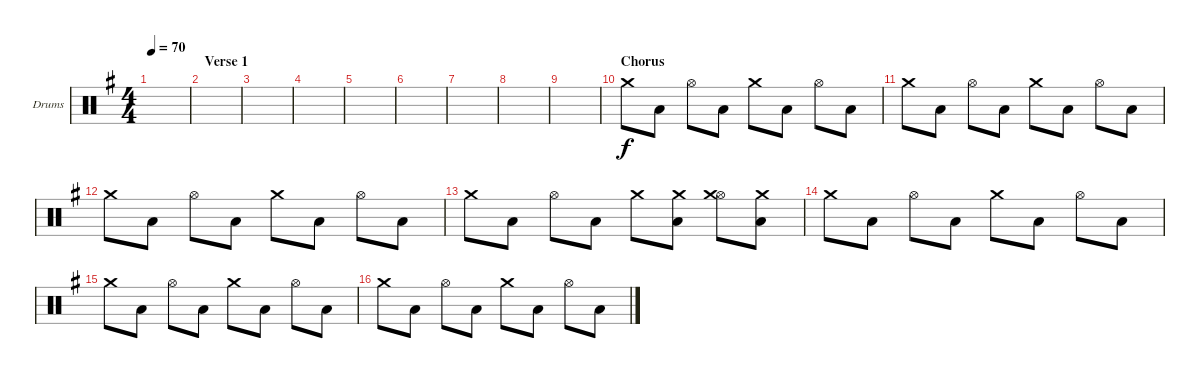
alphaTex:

\defaultSystemsLayout 4
\bracketExtendMode groupsimilarinstruments
\firstSystemTrackNameOrientation horizontal
\otherSystemsTrackNameOrientation horizontal
\track ("Drumkit" "Drums") {instrument percussion}
\staff {score}
\articulation defaults
\ts (4 4)
\tempo 70
\clef neutral
\scale
0.502183
\ks eminor
|
\section ("" "Verse 1")
\scale
0.248908 |
\scale
0.248908 |
\scale
0.333333 |
\scale
0.333333 |
\scale
0.333333 |
|
|
|
\section ("" "Chorus")
"Crash medium (hit)".8 "Low Tom (hit)".8 "Hi-Hat (open)".8 "Low Tom (hit)".8 "Crash medium (hit)".8 "Low Tom (hit)".8 "Hi-Hat (open)".8 "Low Tom (hit)".8 |
"Crash medium (hit)".8 "Low Tom (hit)".8 "Hi-Hat (open)".8 "Low Tom (hit)".8 "Crash medium (hit)".8 "Low Tom (hit)".8 "Hi-Hat (open)".8 "Low Tom (hit)".8 |
"Crash medium (hit)".8 "Low Tom (hit)".8 "Hi-Hat (open)".8 "Low Tom (hit)".8 "Crash medium (hit)".8 "Low Tom (hit)".8 "Hi-Hat (open)".8 "Low Tom (hit)".8 |
"Crash medium (hit)".8 "Low Tom (hit)".8 "Hi-Hat (open)".8 "Low Tom (hit)".8 "Crash medium (hit)".8 ("Low Tom (hit)" "Crash medium (hit)").8 ("Hi-Hat (open)" "Crash medium (hit)").8 ("Low Tom (hit)" "Crash medium (hit)").8 |
"Crash medium (hit)".8 "Low Tom (hit)".8 "Hi-Hat (open)".8 "Low Tom (hit)".8 "Crash medium (hit)".8 "Low Tom (hit)".8 "Hi-Hat (open)".8 "Low Tom (hit)".8 |
"Crash medium (hit)".8 "Low Tom (hit)".8 "Hi-Hat (open)".8 "Low Tom (hit)".8 "Crash medium (hit)".8 "Low Tom (hit)".8 "Hi-Hat (open)".8 "Low Tom (hit)".8 |
"Crash medium (hit)".8 "Low Tom (hit)".8 "Hi-Hat (open)".8 "Low Tom (hit)".8 "Crash medium (hit)".8 "Low Tom (hit)".8 "Hi-Hat (open)".8 "Low Tom (hit)".8
